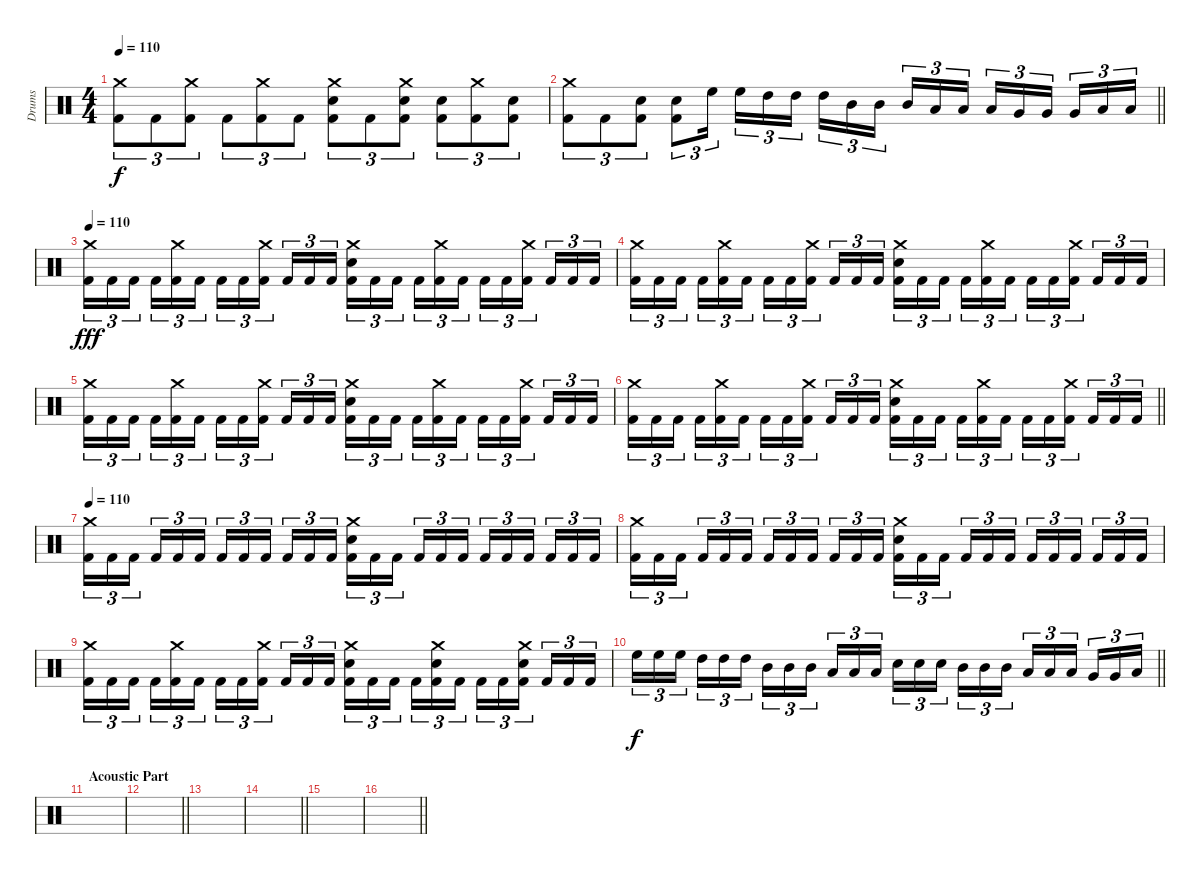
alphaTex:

\track ("Drums" "Drums") {instrument percussion}
\staff {score}
\articulation defaults
\ts (4 4)
\tempo 110
\clef neutral
\ks c
("Crash medium (hit)" "Kick (hit) 2").8{tu (3 2) dy f} "Kick (hit) 2".8{tu (3 2)} ("Crash medium (hit)" "Kick (hit) 2").8{tu (3 2)} "Kick (hit) 2".8{tu (3 2)} ("Crash medium (hit)" "Kick (hit) 2").8{tu (3 2)} "Kick (hit) 2".8{tu (3 2)} ("Crash medium (hit)" "Electric Snare (hit)" "Kick (hit) 2").8{tu (3 2)} "Kick (hit) 2".8{tu (3 2)} ("Crash medium (hit)" "Electric Snare (hit)" "Kick (hit) 2").8{tu (3 2)} ("Electric Snare (hit)" "Kick (hit) 2").8{tu (3 2)} ("Crash medium (hit)" "Kick (hit) 2").8{tu (3 2)} ("Electric Snare (hit)" "Kick (hit) 2").8{tu (3 2)} |
\barLineRight lightlight
("Crash medium (hit)" "Kick (hit) 2").8{tu (3 2)} "Kick (hit) 2".8{tu (3 2)} ("Electric Snare (hit)" "Kick (hit) 2").8{tu (3 2)} ("Electric Snare (hit)" "Kick (hit) 2").8{tu (3 2)} "High Floor Tom (hit)".16{tu (3 2) beam splitsecondary} "High Floor Tom (hit)".16{tu (3 2)} "High Tom (hit)".16{tu (3 2)} "High Tom (hit)".16{tu (3 2)} "High Tom (hit)".16{tu (3 2)} "Mid Tom (hit)".16{tu (3 2)} "Mid Tom (hit)".16{tu (3 2) beam splitsecondary} "Mid Tom (hit)".16{tu (3 2)} "Low Tom (hit)".16{tu (3 2)} "Low Tom (hit)".16{tu (3 2)} "Low Tom (hit)".16{tu (3 2)} "Very Low Tom (hit)".16{tu (3 2)} "Very Low Tom (hit)".16{tu (3 2) beam splitsecondary} "Very Low Tom (hit)".16{tu (3 2)} "Low Floor Tom (hit)".16{tu (3 2)} "Low Floor Tom (hit)".16{tu (3 2)} |
\tempo 115
\tempo 110
("Crash medium (hit)" "Kick (hit) 2").16{tu (3 2) dy fff} "Kick (hit) 2".16{tu (3 2)} "Kick (hit) 2".16{tu (3 2) beam splitsecondary} "Kick (hit) 2".16{tu (3 2)} ("Crash medium (hit)" "Kick (hit) 2").16{tu (3 2)} "Kick (hit) 2".16{tu (3 2)} "Kick (hit) 2".16{tu (3 2)} "Kick (hit) 2".16{tu (3 2)} ("Crash medium (hit)" "Kick (hit) 2").16{tu (3 2) beam splitsecondary} "Kick (hit) 2".16{tu (3 2)} "Kick (hit) 2".16{tu (3 2)} "Kick (hit) 2".16{tu (3 2)} ("Crash medium (hit)" "Electric Snare (hit)" "Kick (hit) 2").16{tu (3 2)} "Kick (hit) 2".16{tu (3 2)} "Kick (hit) 2".16{tu (3 2) beam splitsecondary} "Kick (hit) 2".16{tu (3 2)} ("Crash medium (hit)" "Kick (hit) 2").16{tu (3 2)} "Kick (hit) 2".16{tu (3 2)} "Kick (hit) 2".16{tu (3 2)} "Kick (hit) 2".16{tu (3 2)} ("Crash medium (hit)" "Kick (hit) 2").16{tu (3 2) beam splitsecondary} "Kick (hit) 2".16{tu (3 2)} "Kick (hit) 2".16{tu (3 2)} "Kick (hit) 2".16{tu (3 2)} |
("Crash medium (hit)" "Kick (hit) 2").16{tu (3 2)} "Kick (hit) 2".16{tu (3 2)} "Kick (hit) 2".16{tu (3 2) beam splitsecondary} "Kick (hit) 2".16{tu (3 2)} ("Crash medium (hit)" "Kick (hit) 2").16{tu (3 2)} "Kick (hit) 2".16{tu (3 2)} "Kick (hit) 2".16{tu (3 2)} "Kick (hit) 2".16{tu (3 2)} ("Crash medium (hit)" "Kick (hit) 2").16{tu (3 2) beam splitsecondary} "Kick (hit) 2".16{tu (3 2)} "Kick (hit) 2".16{tu (3 2)} "Kick (hit) 2".16{tu (3 2)} ("Crash medium (hit)" "Electric Snare (hit)" "Kick (hit) 2").16{tu (3 2)} "Kick (hit) 2".16{tu (3 2)} "Kick (hit) 2".16{tu (3 2) beam splitsecondary} "Kick (hit) 2".16{tu (3 2)} ("Crash medium (hit)" "Kick (hit) 2").16{tu (3 2)} "Kick (hit) 2".16{tu (3 2)} "Kick (hit) 2".16{tu (3 2)} "Kick (hit) 2".16{tu (3 2)} ("Crash medium (hit)" "Kick (hit) 2").16{tu (3 2) beam splitsecondary} "Kick (hit) 2".16{tu (3 2)} "Kick (hit) 2".16{tu (3 2)} "Kick (hit) 2".16{tu (3 2)} |
("Crash medium (hit)" "Kick (hit) 2").16{tu (3 2)} "Kick (hit) 2".16{tu (3 2)} "Kick (hit) 2".16{tu (3 2) beam splitsecondary} "Kick (hit) 2".16{tu (3 2)} ("Crash medium (hit)" "Kick (hit) 2").16{tu (3 2)} "Kick (hit) 2".16{tu (3 2)} "Kick (hit) 2".16{tu (3 2)} "Kick (hit) 2".16{tu (3 2)} ("Crash medium (hit)" "Kick (hit) 2").16{tu (3 2) beam splitsecondary} "Kick (hit) 2".16{tu (3 2)} "Kick (hit) 2".16{tu (3 2)} "Kick (hit) 2".16{tu (3 2)} ("Crash medium (hit)" "Electric Snare (hit)" "Kick (hit) 2").16{tu (3 2)} "Kick (hit) 2".16{tu (3 2)} "Kick (hit) 2".16{tu (3 2) beam splitsecondary} "Kick (hit) 2".16{tu (3 2)} ("Crash medium (hit)" "Kick (hit) 2").16{tu (3 2)} "Kick (hit) 2".16{tu (3 2)} "Kick (hit) 2".16{tu (3 2)} "Kick (hit) 2".16{tu (3 2)} ("Crash medium (hit)" "Kick (hit) 2").16{tu (3 2) beam splitsecondary} "Kick (hit) 2".16{tu (3 2)} "Kick (hit) 2".16{tu (3 2)} "Kick (hit) 2".16{tu (3 2)} |
\barLineRight lightlight
("Crash medium (hit)" "Kick (hit) 2").16{tu (3 2)} "Kick (hit) 2".16{tu (3 2)} "Kick (hit) 2".16{tu (3 2) beam splitsecondary} "Kick (hit) 2".16{tu (3 2)} ("Crash medium (hit)" "Kick (hit) 2").16{tu (3 2)} "Kick (hit) 2".16{tu (3 2)} "Kick (hit) 2".16{tu (3 2)} "Kick (hit) 2".16{tu (3 2)} ("Crash medium (hit)" "Kick (hit) 2").16{tu (3 2) beam splitsecondary} "Kick (hit) 2".16{tu (3 2)} "Kick (hit) 2".16{tu (3 2)} "Kick (hit) 2".16{tu (3 2)} ("Crash medium (hit)" "Electric Snare (hit)" "Kick (hit) 2").16{tu (3 2)} "Kick (hit) 2".16{tu (3 2)} "Kick (hit) 2".16{tu (3 2) beam splitsecondary} "Kick (hit) 2".16{tu (3 2)} ("Crash medium (hit)" "Kick (hit) 2").16{tu (3 2)} "Kick (hit) 2".16{tu (3 2)} "Kick (hit) 2".16{tu (3 2)} "Kick (hit) 2".16{tu (3 2)} ("Crash medium (hit)" "Kick (hit) 2").16{tu (3 2) beam splitsecondary} "Kick (hit) 2".16{tu (3 2)} "Kick (hit) 2".16{tu (3 2)} "Kick (hit) 2".16{tu (3 2)} |
\tempo 115
\tempo 110
("Crash medium (hit)" "Kick (hit) 2").16{tu (3 2)} "Kick (hit) 2".16{tu (3 2)} "Kick (hit) 2".16{tu (3 2) beam splitsecondary} "Kick (hit) 2".16{tu (3 2)} "Kick (hit) 2".16{tu (3 2)} "Kick (hit) 2".16{tu (3 2)} "Kick (hit) 2".16{tu (3 2)} "Kick (hit) 2".16{tu (3 2)} "Kick (hit) 2".16{tu (3 2) beam splitsecondary} "Kick (hit) 2".16{tu (3 2)} "Kick (hit) 2".16{tu (3 2)} "Kick (hit) 2".16{tu (3 2)} ("Crash medium (hit)" "Electric Snare (hit)" "Kick (hit) 2").16{tu (3 2)} "Kick (hit) 2".16{tu (3 2)} "Kick (hit) 2".16{tu (3 2) beam splitsecondary} "Kick (hit) 2".16{tu (3 2)} "Kick (hit) 2".16{tu (3 2)} "Kick (hit) 2".16{tu (3 2)} "Kick (hit) 2".16{tu (3 2)} "Kick (hit) 2".16{tu (3 2)} "Kick (hit) 2".16{tu (3 2) beam splitsecondary} "Kick (hit) 2".16{tu (3 2)} "Kick (hit) 2".16{tu (3 2)} "Kick (hit) 2".16{tu (3 2)} |
("Crash medium (hit)" "Kick (hit) 2").16{tu (3 2)} "Kick (hit) 2".16{tu (3 2)} "Kick (hit) 2".16{tu (3 2) beam splitsecondary} "Kick (hit) 2".16{tu (3 2)} "Kick (hit) 2".16{tu (3 2)} "Kick (hit) 2".16{tu (3 2)} "Kick (hit) 2".16{tu (3 2)} "Kick (hit) 2".16{tu (3 2)} "Kick (hit) 2".16{tu (3 2) beam splitsecondary} "Kick (hit) 2".16{tu (3 2)} "Kick (hit) 2".16{tu (3 2)} "Kick (hit) 2".16{tu (3 2)} ("Crash medium (hit)" "Electric Snare (hit)" "Kick (hit) 2").16{tu (3 2)} "Kick (hit) 2".16{tu (3 2)} "Kick (hit) 2".16{tu (3 2) beam splitsecondary} "Kick (hit) 2".16{tu (3 2)} "Kick (hit) 2".16{tu (3 2)} "Kick (hit) 2".16{tu (3 2)} "Kick (hit) 2".16{tu (3 2)} "Kick (hit) 2".16{tu (3 2)} "Kick (hit) 2".16{tu (3 2) beam splitsecondary} "Kick (hit) 2".16{tu (3 2)} "Kick (hit) 2".16{tu (3 2)} "Kick (hit) 2".16{tu (3 2)} |
("Crash medium (hit)" "Kick (hit) 2").16{tu (3 2)} "Kick (hit) 2".16{tu (3 2)} "Kick (hit) 2".16{tu (3 2) beam splitsecondary} "Kick (hit) 2".16{tu (3 2)} ("Crash medium (hit)" "Kick (hit) 2").16{tu (3 2)} "Kick (hit) 2".16{tu (3 2)} "Kick (hit) 2".16{tu (3 2)} "Kick (hit) 2".16{tu (3 2)} ("Crash medium (hit)" "Kick (hit) 2").16{tu (3 2) beam splitsecondary} "Kick (hit) 2".16{tu (3 2)} "Kick (hit) 2".16{tu (3 2)} "Kick (hit) 2".16{tu (3 2)} ("Crash medium (hit)" "Electric Snare (hit)" "Kick (hit) 2").16{tu (3 2)} "Kick (hit) 2".16{tu (3 2)} "Kick (hit) 2".16{tu (3 2) beam splitsecondary} "Kick (hit) 2".16{tu (3 2)} ("Crash medium (hit)" "Electric Snare (hit)" "Kick (hit) 2").16{tu (3 2)} "Kick (hit) 2".16{tu (3 2)} "Kick (hit) 2".16{tu (3 2)} "Kick (hit) 2".16{tu (3 2)} ("Crash medium (hit)" "Electric Snare (hit)" "Kick (hit) 2").16{tu (3 2) beam splitsecondary} "Kick (hit) 2".16{tu (3 2)} "Kick (hit) 2".16{tu (3 2)} "Kick (hit) 2".16{tu (3 2)} |
\barLineRight lightlight "High Floor Tom (hit)".16{tu (3 2) dy f} "High Floor Tom (hit)".16{tu (3 2)} "High Floor Tom (hit)".16{tu (3 2) beam splitsecondary} "High Tom (hit)".16{tu (3 2)} "High Tom (hit)".16{tu (3 2)} "High Tom (hit)".16{tu (3 2)} "Mid Tom (hit)".16{tu (3 2)} "Mid Tom (hit)".16{tu (3 2)} "Mid Tom (hit)".16{tu (3 2) beam splitsecondary} "Low Tom (hit)".16{tu (3 2)} "Low Tom (hit)".16{tu (3 2)} "Low Tom (hit)".16{tu (3 2)} "Electric Snare (hit)".16{tu (3 2)} "Electric Snare (hit)".16{tu (3 2)} "Electric Snare (hit)".16{tu (3 2) beam splitsecondary} "Mid Tom (hit)".16{tu (3 2)} "Mid Tom (hit)".16{tu (3 2)} "Mid Tom (hit)".16{tu (3 2)} "Low Tom (hit)".16{tu (3 2)} "Low Tom (hit)".16{tu (3 2)} "Low Tom (hit)".16{tu (3 2) beam splitsecondary} "Very Low Tom (hit)".16{tu (3 2)} "Very Low Tom (hit)".16{tu (3 2)} "Low Floor Tom (hit)".16{tu (3 2)}
|
\section ("" "Acoustic Part")
|
\barLineRight lightlight
|
|
\barLineRight lightlight
|
|
\barLineRight lightlight
